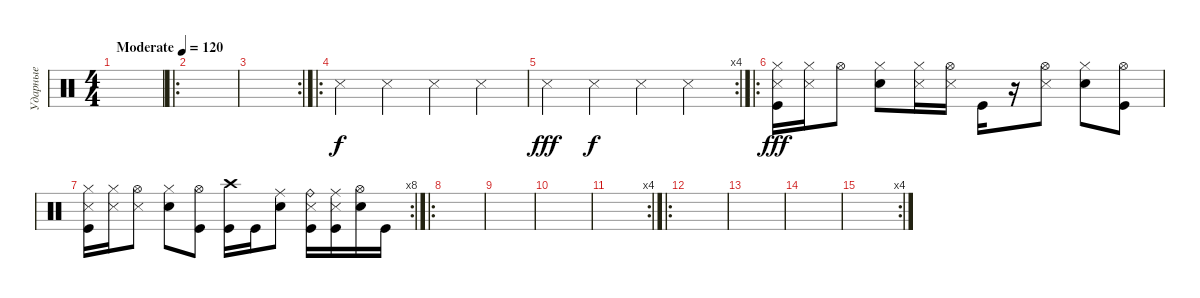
\track ("Ударные" "Ударные") {instrument percussion}
\staff {score}
\articulation defaults
\ts (4 4)
\tempo (120 "Moderate")
\clef neutral
\ks c
|
\ro
|
\rc 2
|
\ro "Snare (side stick) 3".4 "Snare (side stick) 3".4 "Snare (side stick) 3".4 "Snare (side stick) 3".4
|
\rc 4 "Snare (side stick) 3".4{dy fff} "Snare (side stick) 3".4{dy f} "Snare (side stick) 3".4 "Snare (side stick) 3".4
|
\ro
("Hi-Hat (closed)" "Snare (side stick) 3" "Kick (hit)").16{dy fff} ("Hi-Hat (closed)" "Snare (side stick) 3").16 "Hi-Hat (open)".8 ("Hi-Hat (closed)" "Electric Snare (hit)").8 ("Hi-Hat (closed)" "Snare (side stick) 3").16 ("Hi-Hat (open)" "Snare (side stick) 3").16 "Kick (hit)".16 r.16 ("Hi-Hat (open)" "Snare (side stick) 3").8 ("Hi-Hat (closed)" "Electric Snare (hit)").8 ("Hi-Hat (open)" "Kick (hit)").8 |
\rc 8
("Hi-Hat (closed)" "Snare (side stick) 3" "Kick (hit)").16 ("Hi-Hat (closed)" "Snare (side stick) 3").16 ("Hi-Hat (open)" "Snare (side stick) 3").8 ("Hi-Hat (closed)" "Electric Snare (hit)").8 ("Hi-Hat (open)" "Kick (hit)").8 ("Crash high (hit)" "Kick (hit)").16 "Kick (hit)".16 ("Ride (middle)" "Electric Snare (hit)").8 ("Ride (bell)" "Snare (side stick) 3" "Kick (hit)").16 ("Ride (middle)" "Snare (side stick) 3" "Kick (hit)").16 ("Hi-Hat (open)" "Electric Snare (hit)").16 "Kick (hit)".16 |
\ro
|
|
|
\rc 4
|
\ro
|
|
|
\rc 4
